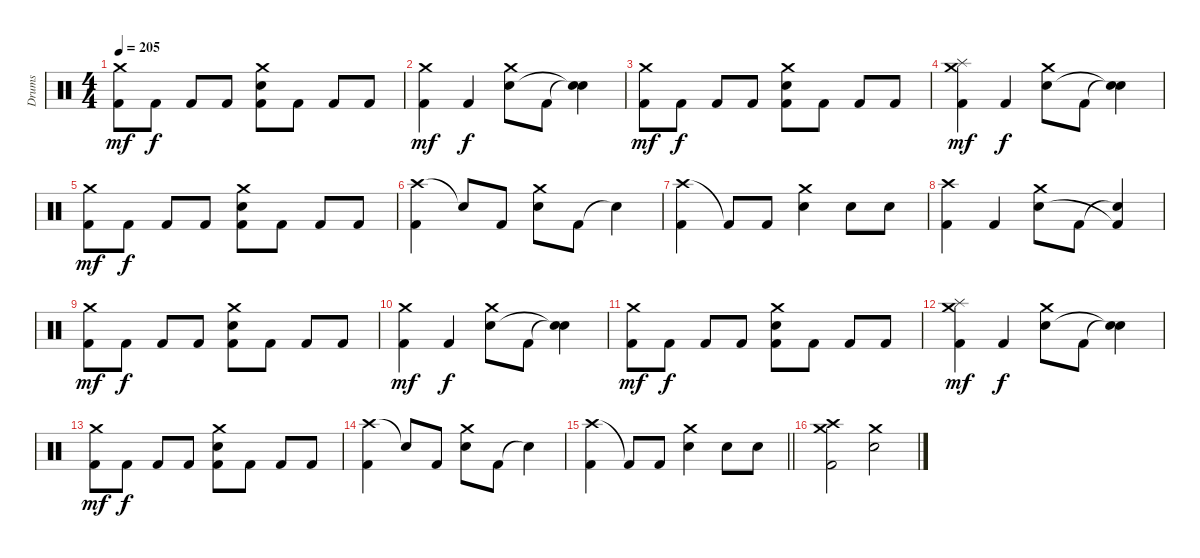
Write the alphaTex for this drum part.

\track ("Drums" "Drums") {instrument percussion}
\staff {score}
\articulation defaults
\ts (4 4)
\tempo 205
\clef neutral
\ks c
("Crash medium (hit)" "Kick (hit) 2").8{dy mf} "Kick (hit) 2".8{dy f} "Kick (hit) 2".8 "Kick (hit) 2".8 ("Crash medium (hit)" "Electric Snare (hit)" "Kick (hit) 2").8 "Kick (hit) 2".8 "Kick (hit) 2".8 "Kick (hit) 2".8 |
("Crash medium (hit)" "Kick (hit) 2").4{dy mf} "Kick (hit) 2".4{dy f} ("Crash medium (hit)" "Electric Snare (hit)").8 "Kick (hit) 2".8 ("Snare (hit)"{t} "Snare (hit)"{t}).4 |
("Crash medium (hit)" "Kick (hit) 2").8{dy mf} "Kick (hit) 2".8{dy f} "Kick (hit) 2".8 "Kick (hit) 2".8 ("Crash medium (hit)" "Electric Snare (hit)" "Kick (hit) 2").8 "Kick (hit) 2".8 "Kick (hit) 2".8 "Kick (hit) 2".8 |
("Splash (hit)" "Crash medium (hit)" "Kick (hit) 2").4{dy mf} "Kick (hit) 2".4{dy f} ("Crash medium (hit)" "Electric Snare (hit)").8 "Kick (hit) 2".8 ("Snare (hit)"{t} "Snare (hit)"{t}).4 |
("Crash medium (hit)" "Kick (hit) 2").8{dy mf} "Kick (hit) 2".8{dy f} "Kick (hit) 2".8 "Kick (hit) 2".8 ("Crash medium (hit)" "Electric Snare (hit)" "Kick (hit) 2").8 "Kick (hit) 2".8 "Kick (hit) 2".8 "Kick (hit) 2".8 |
("Crash high (hit)" "Kick (hit) 2").4 "Snare (hit)"{t}.8 "Kick (hit) 2".8 ("Crash medium (hit)" "Electric Snare (hit)").8 "Kick (hit) 2".8 "Snare (hit)"{t}.4 |
("Crash high (hit)" "Kick (hit) 2").4 "Kick (hit) 2"{t}.8 "Kick (hit) 2".8 ("Crash medium (hit)" "Electric Snare (hit)").4 "Electric Snare (hit)".8 "Electric Snare (hit)".8 |
("Crash high (hit)" "Kick (hit) 2").4 "Kick (hit) 2".4 ("Crash medium (hit)" "Electric Snare (hit)").8 "Kick (hit) 2".8 ("Snare (hit)"{t} "Kick (hit) 2"{t}).4 |
("Crash medium (hit)" "Kick (hit) 2").8{dy mf} "Kick (hit) 2".8{dy f} "Kick (hit) 2".8 "Kick (hit) 2".8 ("Crash medium (hit)" "Electric Snare (hit)" "Kick (hit) 2").8 "Kick (hit) 2".8 "Kick (hit) 2".8 "Kick (hit) 2".8 |
("Crash medium (hit)" "Kick (hit) 2").4{dy mf} "Kick (hit) 2".4{dy f} ("Crash medium (hit)" "Electric Snare (hit)").8 "Kick (hit) 2".8 ("Snare (hit)"{t} "Snare (hit)"{t}).4 |
("Crash medium (hit)" "Kick (hit) 2").8{dy mf} "Kick (hit) 2".8{dy f} "Kick (hit) 2".8 "Kick (hit) 2".8 ("Crash medium (hit)" "Electric Snare (hit)" "Kick (hit) 2").8 "Kick (hit) 2".8 "Kick (hit) 2".8 "Kick (hit) 2".8 |
("Splash (hit)" "Crash medium (hit)" "Kick (hit) 2").4{dy mf} "Kick (hit) 2".4{dy f} ("Crash medium (hit)" "Electric Snare (hit)").8 "Kick (hit) 2".8 ("Snare (hit)"{t} "Snare (hit)"{t}).4 |
("Crash medium (hit)" "Kick (hit) 2").8{dy mf} "Kick (hit) 2".8{dy f} "Kick (hit) 2".8 "Kick (hit) 2".8 ("Crash medium (hit)" "Electric Snare (hit)" "Kick (hit) 2").8 "Kick (hit) 2".8 "Kick (hit) 2".8 "Kick (hit) 2".8 |
("Crash high (hit)" "Kick (hit) 2").4 "Snare (hit)"{t}.8 "Kick (hit) 2".8 ("Crash medium (hit)" "Electric Snare (hit)").8 "Kick (hit) 2".8 "Snare (hit)"{t}.4 |
\barLineRight lightlight
("Crash high (hit)" "Kick (hit) 2").4 "Kick (hit) 2"{t}.8 "Kick (hit) 2".8 ("Crash medium (hit)" "Electric Snare (hit)").4 "Electric Snare (hit)".8 "Electric Snare (hit)".8 |
("Crash high (hit)" "Crash medium (hit)" "Kick (hit) 2").2 ("Crash medium (hit)" "Electric Snare (hit)").2
